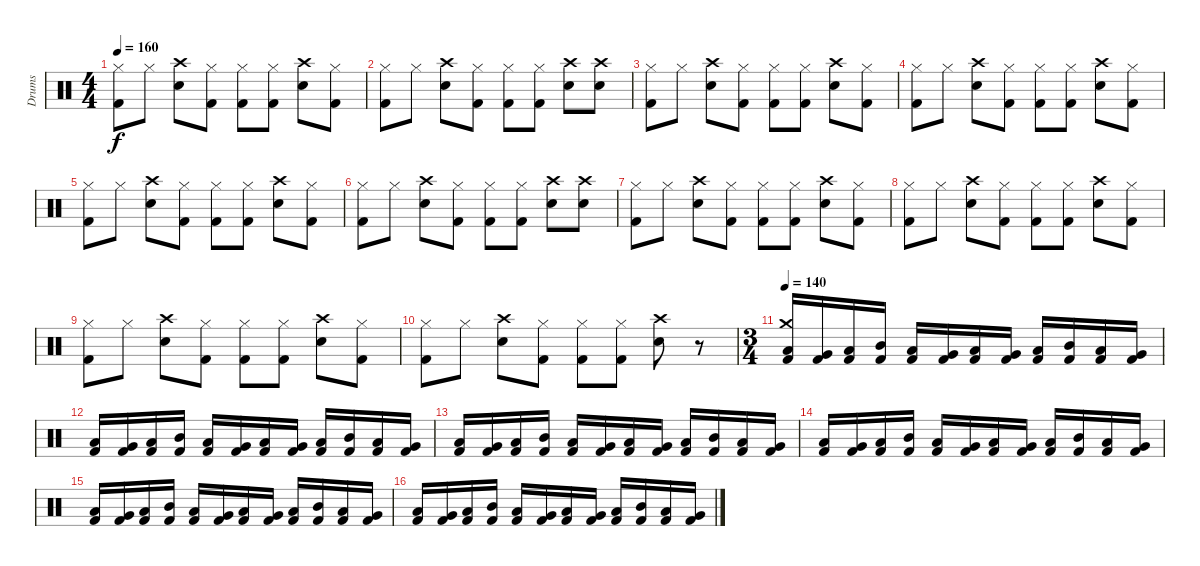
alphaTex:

\track ("Drums" "Drums") {instrument percussion}
\staff {score}
\articulation defaults
\ts (4 4)
\tempo 160
\clef neutral
\ks c
("Hi-Hat (closed)" "Kick (hit) 2").8{dy f} "Hi-Hat (closed)".8 ("Crash high (hit)" "Electric Snare (hit)").8 ("Hi-Hat (closed)" "Kick (hit) 2").8 ("Hi-Hat (closed)" "Kick (hit) 2").8 ("Hi-Hat (closed)" "Kick (hit) 2").8 ("Crash high (hit)" "Electric Snare (hit)").8 ("Hi-Hat (closed)" "Kick (hit) 2").8 |
("Hi-Hat (closed)" "Kick (hit) 2").8 "Hi-Hat (closed)".8 ("Crash high (hit)" "Electric Snare (hit)").8 ("Hi-Hat (closed)" "Kick (hit) 2").8 ("Hi-Hat (closed)" "Kick (hit) 2").8 ("Hi-Hat (closed)" "Kick (hit) 2").8 ("Crash high (hit)" "Electric Snare (hit)").8 ("Crash high (hit)" "Electric Snare (hit)").8 |
("Hi-Hat (closed)" "Kick (hit) 2").8 "Hi-Hat (closed)".8 ("Crash high (hit)" "Electric Snare (hit)").8 ("Hi-Hat (closed)" "Kick (hit) 2").8 ("Hi-Hat (closed)" "Kick (hit) 2").8 ("Hi-Hat (closed)" "Kick (hit) 2").8 ("Crash high (hit)" "Electric Snare (hit)").8 ("Hi-Hat (closed)" "Kick (hit) 2").8 |
("Hi-Hat (closed)" "Kick (hit) 2").8 "Hi-Hat (closed)".8 ("Crash high (hit)" "Electric Snare (hit)").8 ("Hi-Hat (closed)" "Kick (hit) 2").8 ("Hi-Hat (closed)" "Kick (hit) 2").8 ("Hi-Hat (closed)" "Kick (hit) 2").8 ("Crash high (hit)" "Electric Snare (hit)").8 ("Hi-Hat (closed)" "Kick (hit) 2").8 |
("Hi-Hat (closed)" "Kick (hit) 2").8 "Hi-Hat (closed)".8 ("Crash high (hit)" "Electric Snare (hit)").8 ("Hi-Hat (closed)" "Kick (hit) 2").8 ("Hi-Hat (closed)" "Kick (hit) 2").8 ("Hi-Hat (closed)" "Kick (hit) 2").8 ("Crash high (hit)" "Electric Snare (hit)").8 ("Hi-Hat (closed)" "Kick (hit) 2").8 |
("Hi-Hat (closed)" "Kick (hit) 2").8 "Hi-Hat (closed)".8 ("Crash high (hit)" "Electric Snare (hit)").8 ("Hi-Hat (closed)" "Kick (hit) 2").8 ("Hi-Hat (closed)" "Kick (hit) 2").8 ("Hi-Hat (closed)" "Kick (hit) 2").8 ("Crash high (hit)" "Electric Snare (hit)").8 ("Crash high (hit)" "Electric Snare (hit)").8 |
("Hi-Hat (closed)" "Kick (hit) 2").8 "Hi-Hat (closed)".8 ("Crash high (hit)" "Electric Snare (hit)").8 ("Hi-Hat (closed)" "Kick (hit) 2").8 ("Hi-Hat (closed)" "Kick (hit) 2").8 ("Hi-Hat (closed)" "Kick (hit) 2").8 ("Crash high (hit)" "Electric Snare (hit)").8 ("Hi-Hat (closed)" "Kick (hit) 2").8 |
("Hi-Hat (closed)" "Kick (hit) 2").8 "Hi-Hat (closed)".8 ("Crash high (hit)" "Electric Snare (hit)").8 ("Hi-Hat (closed)" "Kick (hit) 2").8 ("Hi-Hat (closed)" "Kick (hit) 2").8 ("Hi-Hat (closed)" "Kick (hit) 2").8 ("Crash high (hit)" "Electric Snare (hit)").8 ("Hi-Hat (closed)" "Kick (hit) 2").8 |
("Hi-Hat (closed)" "Kick (hit) 2").8 "Hi-Hat (closed)".8 ("Crash high (hit)" "Electric Snare (hit)").8 ("Hi-Hat (closed)" "Kick (hit) 2").8 ("Hi-Hat (closed)" "Kick (hit) 2").8 ("Hi-Hat (closed)" "Kick (hit) 2").8 ("Crash high (hit)" "Electric Snare (hit)").8 ("Hi-Hat (closed)" "Kick (hit) 2").8 |
("Hi-Hat (closed)" "Kick (hit) 2").8 "Hi-Hat (closed)".8 ("Crash high (hit)" "Electric Snare (hit)").8 ("Hi-Hat (closed)" "Kick (hit) 2").8 ("Hi-Hat (closed)" "Kick (hit) 2").8 ("Hi-Hat (closed)" "Kick (hit) 2").8 ("Crash high (hit)" "Electric Snare (hit)").8 r.8 |
\ts (3 4)
\tempo 140
("Crash medium (hit)" "Low Floor Tom (hit)" "Kick (hit) 2").16 ("Very Low Tom (hit)" "Kick (hit) 2").16 ("Low Tom (hit)" "Kick (hit) 2").16 ("Mid Tom (hit)" "Kick (hit) 2").16 ("Low Tom (hit)" "Kick (hit) 2").16 ("Very Low Tom (hit)" "Kick (hit) 2").16 ("Low Floor Tom (hit)" "Kick (hit) 2").16 ("Very Low Tom (hit)" "Kick (hit) 2").16 ("Low Tom (hit)" "Kick (hit) 2").16 ("Mid Tom (hit)" "Kick (hit) 2").16 ("Low Tom (hit)" "Kick (hit) 2").16 ("Very Low Tom (hit)" "Kick (hit) 2").16 |
("Low Floor Tom (hit)" "Kick (hit) 2").16 ("Very Low Tom (hit)" "Kick (hit) 2").16 ("Low Tom (hit)" "Kick (hit) 2").16 ("Mid Tom (hit)" "Kick (hit) 2").16 ("Low Tom (hit)" "Kick (hit) 2").16 ("Very Low Tom (hit)" "Kick (hit) 2").16 ("Low Floor Tom (hit)" "Kick (hit) 2").16 ("Very Low Tom (hit)" "Kick (hit) 2").16 ("Low Tom (hit)" "Kick (hit) 2").16 ("Mid Tom (hit)" "Kick (hit) 2").16 ("Low Tom (hit)" "Kick (hit) 2").16 ("Very Low Tom (hit)" "Kick (hit) 2").16 |
("Low Floor Tom (hit)" "Kick (hit) 2").16 ("Very Low Tom (hit)" "Kick (hit) 2").16 ("Low Tom (hit)" "Kick (hit) 2").16 ("Mid Tom (hit)" "Kick (hit) 2").16 ("Low Tom (hit)" "Kick (hit) 2").16 ("Very Low Tom (hit)" "Kick (hit) 2").16 ("Low Floor Tom (hit)" "Kick (hit) 2").16 ("Very Low Tom (hit)" "Kick (hit) 2").16 ("Low Tom (hit)" "Kick (hit) 2").16 ("Mid Tom (hit)" "Kick (hit) 2").16 ("Low Tom (hit)" "Kick (hit) 2").16 ("Very Low Tom (hit)" "Kick (hit) 2").16 |
("Low Floor Tom (hit)" "Kick (hit) 2").16 ("Very Low Tom (hit)" "Kick (hit) 2").16 ("Low Tom (hit)" "Kick (hit) 2").16 ("Mid Tom (hit)" "Kick (hit) 2").16 ("Low Tom (hit)" "Kick (hit) 2").16 ("Very Low Tom (hit)" "Kick (hit) 2").16 ("Low Floor Tom (hit)" "Kick (hit) 2").16 ("Very Low Tom (hit)" "Kick (hit) 2").16 ("Low Tom (hit)" "Kick (hit) 2").16 ("Mid Tom (hit)" "Kick (hit) 2").16 ("Low Tom (hit)" "Kick (hit) 2").16 ("Very Low Tom (hit)" "Kick (hit) 2").16 |
("Low Floor Tom (hit)" "Kick (hit) 2").16 ("Very Low Tom (hit)" "Kick (hit) 2").16 ("Low Tom (hit)" "Kick (hit) 2").16 ("Mid Tom (hit)" "Kick (hit) 2").16 ("Low Tom (hit)" "Kick (hit) 2").16 ("Very Low Tom (hit)" "Kick (hit) 2").16 ("Low Floor Tom (hit)" "Kick (hit) 2").16 ("Very Low Tom (hit)" "Kick (hit) 2").16 ("Low Tom (hit)" "Kick (hit) 2").16 ("Mid Tom (hit)" "Kick (hit) 2").16 ("Low Tom (hit)" "Kick (hit) 2").16 ("Very Low Tom (hit)" "Kick (hit) 2").16 |
("Low Floor Tom (hit)" "Kick (hit) 2").16 ("Very Low Tom (hit)" "Kick (hit) 2").16 ("Low Tom (hit)" "Kick (hit) 2").16 ("Mid Tom (hit)" "Kick (hit) 2").16 ("Low Tom (hit)" "Kick (hit) 2").16 ("Very Low Tom (hit)" "Kick (hit) 2").16 ("Low Floor Tom (hit)" "Kick (hit) 2").16 ("Very Low Tom (hit)" "Kick (hit) 2").16 ("Low Tom (hit)" "Kick (hit) 2").16 ("Mid Tom (hit)" "Kick (hit) 2").16 ("Low Tom (hit)" "Kick (hit) 2").16 ("Very Low Tom (hit)" "Kick (hit) 2").16
